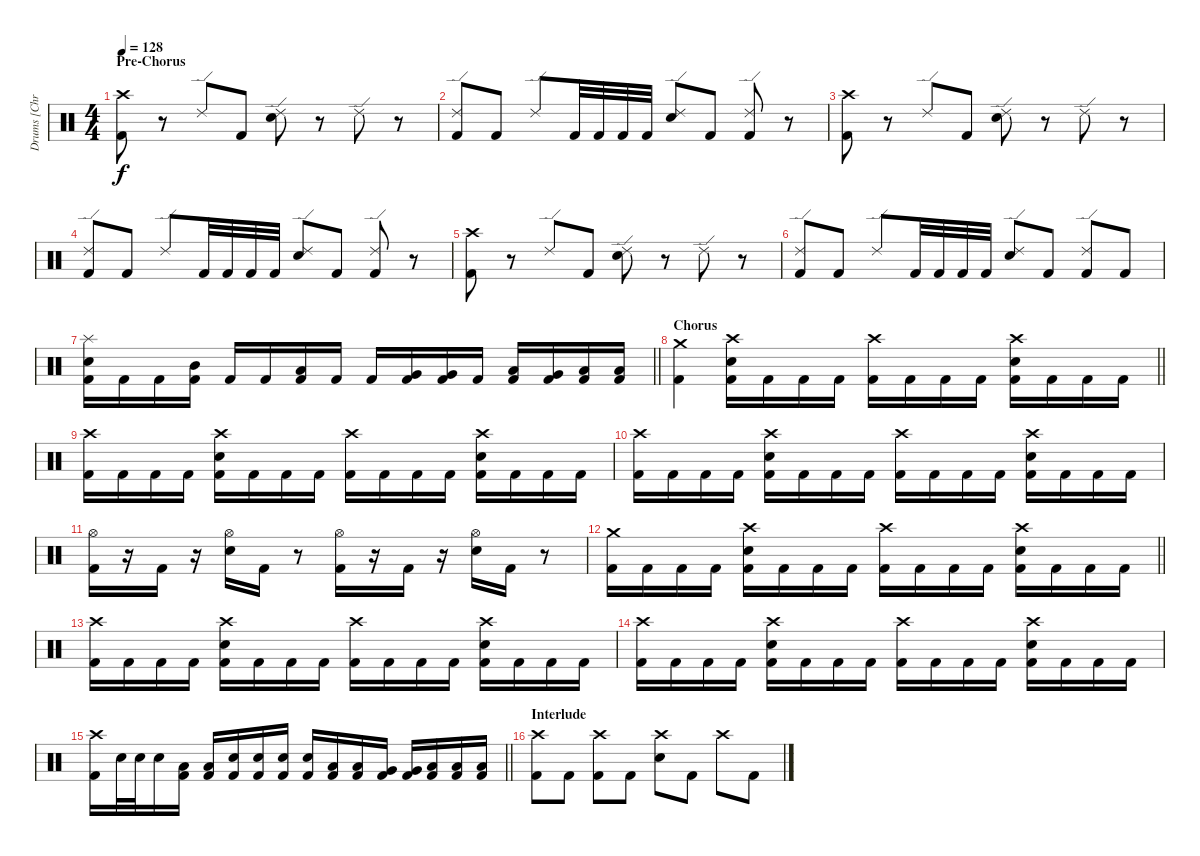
\track ("Drums [Chris Adler]" "Drums [Chr") {instrument percussion}
\staff {score}
\articulation defaults
\ts (4 4)
\section ("" "Pre-Chorus")
\tempo 128
\clef neutral
\ks c
("Crash high (hit)" "Kick (hit) 2").8{dy f} r.8 "Ride (edge) 2".8 "Kick (hit) 2".8 ("Ride (edge) 2" "Snare (hit) 2").8 r.8 "Ride (edge) 2".8 r.8 |
("Ride (edge) 2" "Kick (hit) 2").8 "Kick (hit) 2".8 "Ride (edge) 2".8 "Kick (hit) 2".32 "Kick (hit) 2".32 "Kick (hit) 2".32 "Kick (hit) 2".32 ("Ride (edge) 2" "Snare (hit) 2").8 "Kick (hit) 2".8 ("Ride (edge) 2" "Kick (hit) 2").8 r.8 |
("Crash high (hit)" "Kick (hit) 2").8 r.8 "Ride (edge) 2".8 "Kick (hit) 2".8 ("Ride (edge) 2" "Snare (hit) 2").8 r.8 "Ride (edge) 2".8 r.8 |
("Ride (edge) 2" "Kick (hit) 2").8 "Kick (hit) 2".8 "Ride (edge) 2".8 "Kick (hit) 2".32 "Kick (hit) 2".32 "Kick (hit) 2".32 "Kick (hit) 2".32 ("Ride (edge) 2" "Snare (hit) 2").8 "Kick (hit) 2".8 ("Ride (edge) 2" "Kick (hit) 2").8 r.8 |
("Crash high (hit)" "Kick (hit) 2").8 r.8 "Ride (edge) 2".8 "Kick (hit) 2".8 ("Ride (edge) 2" "Snare (hit) 2").8 r.8 "Ride (edge) 2".8 r.8 |
("Ride (edge) 2" "Kick (hit) 2").8 "Kick (hit) 2".8 "Ride (edge) 2".8 "Kick (hit) 2".32 "Kick (hit) 2".32 "Kick (hit) 2".32 "Kick (hit) 2".32 ("Ride (edge) 2" "Snare (hit) 2").8 "Kick (hit) 2".8 ("Ride (edge) 2" "Kick (hit) 2").8 "Kick (hit) 2".8 |
\barLineRight lightlight
("Splash (hit)" "Snare (hit) 2" "Kick (hit) 2").16 "Kick (hit) 2".16 "Kick (hit) 2".16 ("Mid Tom (hit)" "Kick (hit) 2").16 "Kick (hit) 2".16 "Kick (hit) 2".16 ("Low Tom (hit)" "Kick (hit) 2").16 "Kick (hit) 2".16 "Kick (hit) 2".16 ("Very Low Tom (hit)" "Kick (hit) 2").16 ("Very Low Tom (hit)" "Kick (hit) 2").16 "Kick (hit) 2".16 ("Low Floor Tom (hit)" "Kick (hit) 2").16 ("Very Low Tom (hit)" "Kick (hit) 2").16 ("Low Floor Tom (hit)" "Kick (hit) 2").16 ("Low Floor Tom (hit)" "Kick (hit) 2").16 |
\section ("" "Chorus")
\barLineRight lightlight
("Crash medium (hit)" "Kick (hit) 2").4 ("Crash high (hit)" "Snare (hit) 2" "Kick (hit) 2").16 "Kick (hit) 2".16 "Kick (hit) 2".16 "Kick (hit) 2".16 ("Crash high (hit)" "Kick (hit) 2").16 "Kick (hit) 2".16 "Kick (hit) 2".16 "Kick (hit) 2".16 ("Crash high (hit)" "Snare (hit) 2" "Kick (hit) 2").16 "Kick (hit) 2".16 "Kick (hit) 2".16 "Kick (hit) 2".16 |
("Crash high (hit)" "Kick (hit) 2").16 "Kick (hit) 2".16 "Kick (hit) 2".16 "Kick (hit) 2".16 ("Crash high (hit)" "Snare (hit) 2" "Kick (hit) 2").16 "Kick (hit) 2".16 "Kick (hit) 2".16 "Kick (hit) 2".16 ("Crash high (hit)" "Kick (hit) 2").16 "Kick (hit) 2".16 "Kick (hit) 2".16 "Kick (hit) 2".16 ("Crash high (hit)" "Snare (hit) 2" "Kick (hit) 2").16 "Kick (hit) 2".16 "Kick (hit) 2".16 "Kick (hit) 2".16 |
("Crash high (hit)" "Kick (hit) 2").16 "Kick (hit) 2".16 "Kick (hit) 2".16 "Kick (hit) 2".16 ("Crash high (hit)" "Snare (hit) 2" "Kick (hit) 2").16 "Kick (hit) 2".16 "Kick (hit) 2".16 "Kick (hit) 2".16 ("Crash high (hit)" "Kick (hit) 2").16 "Kick (hit) 2".16 "Kick (hit) 2".16 "Kick (hit) 2".16 ("Crash high (hit)" "Snare (hit) 2" "Kick (hit) 2").16 "Kick (hit) 2".16 "Kick (hit) 2".16 "Kick (hit) 2".16 |
("Hi-Hat (open)" "Kick (hit) 2").16 r.16 "Kick (hit) 2".16 r.16 ("Hi-Hat (open)" "Snare (hit) 2").16 "Kick (hit) 2".16 r.8 ("Hi-Hat (open)" "Kick (hit) 2").16 r.16 "Kick (hit) 2".16 r.16 ("Hi-Hat (open)" "Snare (hit) 2").16 "Kick (hit) 2".16 r.8 |
\barLineRight lightlight
("Crash medium (hit)" "Kick (hit) 2").16 "Kick (hit) 2".16 "Kick (hit) 2".16 "Kick (hit) 2".16 ("Crash high (hit)" "Snare (hit) 2" "Kick (hit) 2").16 "Kick (hit) 2".16 "Kick (hit) 2".16 "Kick (hit) 2".16 ("Crash high (hit)" "Kick (hit) 2").16 "Kick (hit) 2".16 "Kick (hit) 2".16 "Kick (hit) 2".16 ("Crash high (hit)" "Snare (hit) 2" "Kick (hit) 2").16 "Kick (hit) 2".16 "Kick (hit) 2".16 "Kick (hit) 2".16 |
("Crash high (hit)" "Kick (hit) 2").16 "Kick (hit) 2".16 "Kick (hit) 2".16 "Kick (hit) 2".16 ("Crash high (hit)" "Snare (hit) 2" "Kick (hit) 2").16 "Kick (hit) 2".16 "Kick (hit) 2".16 "Kick (hit) 2".16 ("Crash high (hit)" "Kick (hit) 2").16 "Kick (hit) 2".16 "Kick (hit) 2".16 "Kick (hit) 2".16 ("Crash high (hit)" "Snare (hit) 2" "Kick (hit) 2").16 "Kick (hit) 2".16 "Kick (hit) 2".16 "Kick (hit) 2".16 |
("Crash high (hit)" "Kick (hit) 2").16 "Kick (hit) 2".16 "Kick (hit) 2".16 "Kick (hit) 2".16 ("Crash high (hit)" "Snare (hit) 2" "Kick (hit) 2").16 "Kick (hit) 2".16 "Kick (hit) 2".16 "Kick (hit) 2".16 ("Crash high (hit)" "Kick (hit) 2").16 "Kick (hit) 2".16 "Kick (hit) 2".16 "Kick (hit) 2".16 ("Crash high (hit)" "Snare (hit) 2" "Kick (hit) 2").16 "Kick (hit) 2".16 "Kick (hit) 2".16 "Kick (hit) 2".16 |
\barLineRight lightlight
("Crash high (hit)" "Kick (hit) 2").16 "Snare (hit) 2".32 "Snare (hit) 2".32 "Snare (hit) 2".16 ("Low Tom (hit)" "Kick (hit) 2").16 ("Low Tom (hit)" "Kick (hit) 2").16 ("Snare (hit) 2" "Kick (hit) 2").16 ("Snare (hit) 2" "Kick (hit) 2").16 ("Snare (hit) 2" "Kick (hit) 2").16 ("Snare (hit) 2" "Kick (hit) 2").16 ("Low Tom (hit)" "Kick (hit) 2").16 ("Low Tom (hit)" "Kick (hit) 2").16 ("Very Low Tom (hit)" "Kick (hit) 2").16 ("Very Low Tom (hit)" "Kick (hit) 2").16 ("Low Floor Tom (hit)" "Kick (hit) 2").16 ("Low Floor Tom (hit)" "Kick (hit) 2").16 ("Low Floor Tom (hit)" "Kick (hit) 2").16 |
\section ("" "Interlude")
("Crash high (hit)" "Kick (hit) 2").8 "Kick (hit) 2".8 ("Crash high (hit)" "Kick (hit) 2").8 "Kick (hit) 2".8 ("Crash high (hit)" "Snare (hit) 2").8 "Kick (hit) 2".8 "Crash high (hit)".8 "Kick (hit) 2".8
